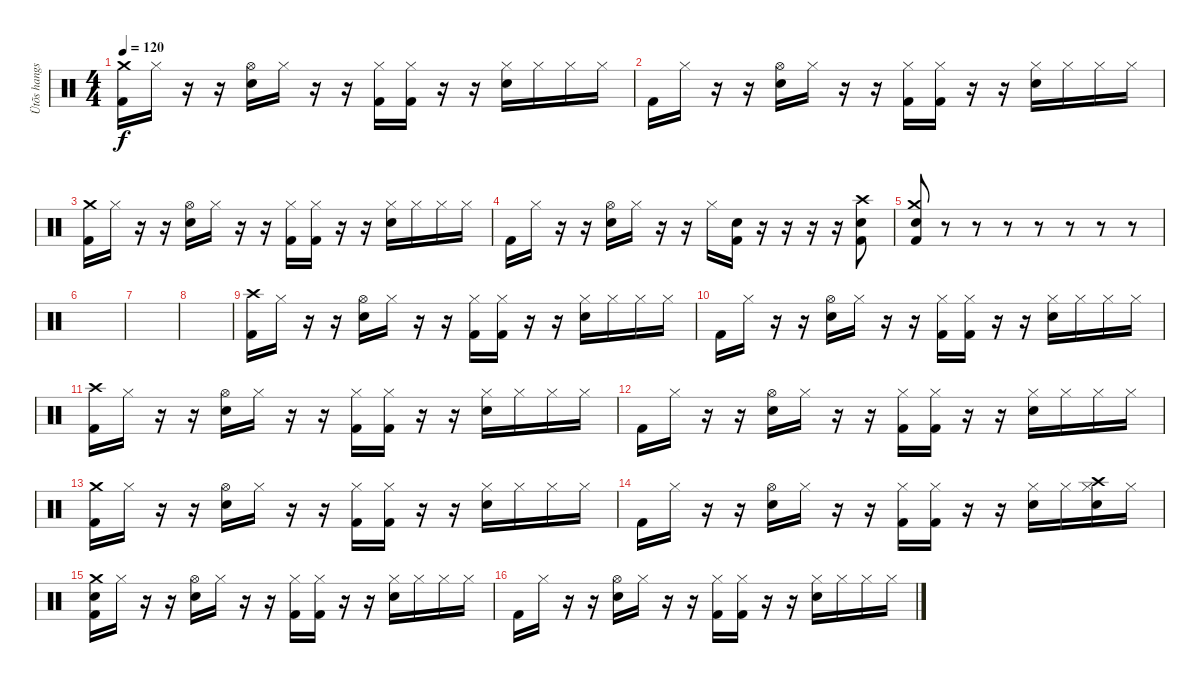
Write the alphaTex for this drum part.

\track ("Ütõs hangszer" "Ütõs hangs") {instrument percussion}
\staff {score}
\articulation defaults
\ts (4 4)
\tempo 120
\clef neutral
\ks c
("Kick (hit) 2" "Crash medium (hit)").16{dy f} "Hi-Hat (closed)".16 r.16 r.16 ("Snare (hit) 2" "Hi-Hat (open)").16 "Hi-Hat (closed)".16 r.16 r.16 ("Kick (hit) 2" "Hi-Hat (closed)").16 ("Kick (hit) 2" "Hi-Hat (closed)").16 r.16 r.16 ("Snare (hit) 2" "Hi-Hat (closed)").16 "Hi-Hat (closed)".16 "Hi-Hat (closed)".16 "Hi-Hat (closed)".16 |
"Kick (hit) 2".16 "Hi-Hat (closed)".16 r.16 r.16 ("Snare (hit) 2" "Hi-Hat (open)").16 "Hi-Hat (closed)".16 r.16 r.16 ("Kick (hit) 2" "Hi-Hat (closed)").16 ("Kick (hit) 2" "Hi-Hat (closed)").16 r.16 r.16 ("Snare (hit) 2" "Hi-Hat (closed)").16 "Hi-Hat (closed)".16 "Hi-Hat (closed)".16 "Hi-Hat (closed)".16 |
("Kick (hit) 2" "Crash medium (hit)").16 "Hi-Hat (closed)".16 r.16 r.16 ("Snare (hit) 2" "Hi-Hat (open)").16 "Hi-Hat (closed)".16 r.16 r.16 ("Kick (hit) 2" "Hi-Hat (closed)").16 ("Kick (hit) 2" "Hi-Hat (closed)").16 r.16 r.16 ("Snare (hit) 2" "Hi-Hat (closed)").16 "Hi-Hat (closed)".16 "Hi-Hat (closed)".16 "Hi-Hat (closed)".16 |
"Kick (hit) 2".16 "Hi-Hat (closed)".16 r.16 r.16 ("Snare (hit) 2" "Hi-Hat (open)").16 "Hi-Hat (closed)".16 r.16 r.16 "Hi-Hat (closed)".16 ("Kick (hit) 2" "Snare (hit) 2").16 r.16 r.16 r.16 r.16 ("Snare (hit) 2" "Kick (hit) 2" "Crash high (hit)").8 |
("Snare (hit) 2" "Kick (hit) 2" "Crash medium (hit)").8 r.8 r.8 r.8 r.8 r.8 r.8 r.8 |
|
|
|
("Kick (hit) 2" "Crash high (hit)").16 "Hi-Hat (closed)".16 r.16 r.16 ("Snare (hit) 2" "Hi-Hat (open)").16 "Hi-Hat (closed)".16 r.16 r.16 ("Kick (hit) 2" "Hi-Hat (closed)").16 ("Kick (hit) 2" "Hi-Hat (closed)").16 r.16 r.16 ("Snare (hit) 2" "Hi-Hat (closed)").16 "Hi-Hat (closed)".16 "Hi-Hat (closed)".16 "Hi-Hat (closed)".16 |
"Kick (hit) 2".16 "Hi-Hat (closed)".16 r.16 r.16 ("Snare (hit) 2" "Hi-Hat (open)").16 "Hi-Hat (closed)".16 r.16 r.16 ("Kick (hit) 2" "Hi-Hat (closed)").16 ("Kick (hit) 2" "Hi-Hat (closed)").16 r.16 r.16 ("Snare (hit) 2" "Hi-Hat (closed)").16 "Hi-Hat (closed)".16 "Hi-Hat (closed)".16 "Hi-Hat (closed)".16 |
("Kick (hit) 2" "Crash high (hit)").16 "Hi-Hat (closed)".16 r.16 r.16 ("Snare (hit) 2" "Hi-Hat (open)").16 "Hi-Hat (closed)".16 r.16 r.16 ("Kick (hit) 2" "Hi-Hat (closed)").16 ("Kick (hit) 2" "Hi-Hat (closed)").16 r.16 r.16 ("Snare (hit) 2" "Hi-Hat (closed)").16 "Hi-Hat (closed)".16 "Hi-Hat (closed)".16 "Hi-Hat (closed)".16 |
"Kick (hit) 2".16 "Hi-Hat (closed)".16 r.16 r.16 ("Snare (hit) 2" "Hi-Hat (open)").16 "Hi-Hat (closed)".16 r.16 r.16 ("Kick (hit) 2" "Hi-Hat (closed)").16 ("Kick (hit) 2" "Hi-Hat (closed)").16 r.16 r.16 ("Snare (hit) 2" "Hi-Hat (closed)").16 "Hi-Hat (closed)".16 "Hi-Hat (closed)".16 "Hi-Hat (closed)".16 |
("Kick (hit) 2" "Crash medium (hit)").16 "Hi-Hat (closed)".16 r.16 r.16 ("Snare (hit) 2" "Hi-Hat (open)").16 "Hi-Hat (closed)".16 r.16 r.16 ("Kick (hit) 2" "Hi-Hat (closed)").16 ("Kick (hit) 2" "Hi-Hat (closed)").16 r.16 r.16 ("Snare (hit) 2" "Hi-Hat (closed)").16 "Hi-Hat (closed)".16 "Hi-Hat (closed)".16 "Hi-Hat (closed)".16 |
"Kick (hit) 2".16 "Hi-Hat (closed)".16 r.16 r.16 ("Snare (hit) 2" "Hi-Hat (open)").16 "Hi-Hat (closed)".16 r.16 r.16 ("Kick (hit) 2" "Hi-Hat (closed)").16 ("Kick (hit) 2" "Hi-Hat (closed)").16 r.16 r.16 ("Snare (hit) 2" "Hi-Hat (closed)").16 "Hi-Hat (closed)".16 ("Hi-Hat (closed)" "Snare (hit) 2" "Crash high (hit)").16 "Hi-Hat (closed)".16 |
("Kick (hit) 2" "Snare (hit) 2" "Crash medium (hit)").16 "Hi-Hat (closed)".16 r.16 r.16 ("Snare (hit) 2" "Hi-Hat (open)").16 "Hi-Hat (closed)".16 r.16 r.16 ("Kick (hit) 2" "Hi-Hat (closed)").16 ("Kick (hit) 2" "Hi-Hat (closed)").16 r.16 r.16 ("Snare (hit) 2" "Hi-Hat (closed)").16 "Hi-Hat (closed)".16 "Hi-Hat (closed)".16 "Hi-Hat (closed)".16 |
"Kick (hit) 2".16 "Hi-Hat (closed)".16 r.16 r.16 ("Snare (hit) 2" "Hi-Hat (open)").16 "Hi-Hat (closed)".16 r.16 r.16 ("Kick (hit) 2" "Hi-Hat (closed)").16 ("Kick (hit) 2" "Hi-Hat (closed)").16 r.16 r.16 ("Snare (hit) 2" "Hi-Hat (closed)").16 "Hi-Hat (closed)".16 "Hi-Hat (closed)".16 "Hi-Hat (closed)".16
